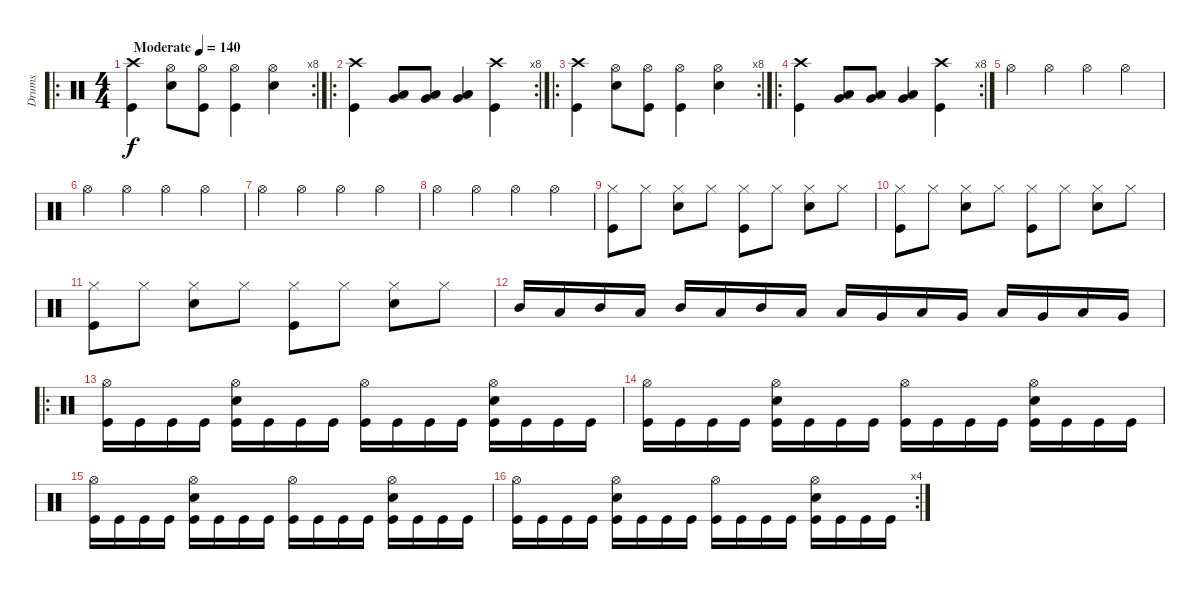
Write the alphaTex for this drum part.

\track ("Drums" "Drums") {instrument percussion}
\staff {score}
\articulation defaults
\ro
\rc 8
\ts (4 4)
\tempo (140 "Moderate")
\clef neutral
\ks c
("Kick (hit)" "Crash high (hit)").4{dy f} ("Snare (hit) 2" "Hi-Hat (open)").8 ("Kick (hit)" "Hi-Hat (open)").8 ("Kick (hit)" "Hi-Hat (open)").4 ("Snare (hit) 2" "Hi-Hat (open)").4 |
\ro
\rc 8
("Crash high (hit)" "Kick (hit)").4 ("Low Floor Tom (hit)" "Very Low Tom (hit)").8 ("Low Floor Tom (hit)" "Very Low Tom (hit)").8 ("Low Floor Tom (hit)" "Very Low Tom (hit)").4 ("Crash high (hit)" "Kick (hit)").4 |
\ro
\rc 8
("Kick (hit)" "Crash high (hit)").4 ("Snare (hit) 2" "Hi-Hat (open)").8 ("Kick (hit)" "Hi-Hat (open)").8 ("Kick (hit)" "Hi-Hat (open)").4 ("Snare (hit) 2" "Hi-Hat (open)").4 |
\ro
\rc 8
("Crash high (hit)" "Kick (hit)").4 ("Low Floor Tom (hit)" "Very Low Tom (hit)").8 ("Low Floor Tom (hit)" "Very Low Tom (hit)").8 ("Low Floor Tom (hit)" "Very Low Tom (hit)").4 ("Crash high (hit)" "Kick (hit)").4 |
"Hi-Hat (open)".4 "Hi-Hat (open)".4 "Hi-Hat (open)".4 "Hi-Hat (open)".4 |
"Hi-Hat (open)".4 "Hi-Hat (open)".4 "Hi-Hat (open)".4 "Hi-Hat (open)".4 |
"Hi-Hat (open)".4 "Hi-Hat (open)".4 "Hi-Hat (open)".4 "Hi-Hat (open)".4 |
"Hi-Hat (open)".4 "Hi-Hat (open)".4 "Hi-Hat (open)".4 "Hi-Hat (open)".4 |
("Kick (hit)" "Hi-Hat (closed)").8 "Hi-Hat (closed)".8 ("Snare (hit) 2" "Hi-Hat (closed)").8 "Hi-Hat (closed)".8 ("Kick (hit)" "Hi-Hat (closed)").8 "Hi-Hat (closed)".8 ("Snare (hit) 2" "Hi-Hat (closed)").8 "Hi-Hat (closed)".8 |
("Kick (hit)" "Hi-Hat (closed)").8 "Hi-Hat (closed)".8 ("Snare (hit) 2" "Hi-Hat (closed)").8 "Hi-Hat (closed)".8 ("Kick (hit)" "Hi-Hat (closed)").8 "Hi-Hat (closed)".8 ("Snare (hit) 2" "Hi-Hat (closed)").8 "Hi-Hat (closed)".8 |
("Kick (hit)" "Hi-Hat (closed)").8 "Hi-Hat (closed)".8 ("Snare (hit) 2" "Hi-Hat (closed)").8 "Hi-Hat (closed)".8 ("Kick (hit)" "Hi-Hat (closed)").8 "Hi-Hat (closed)".8 ("Snare (hit) 2" "Hi-Hat (closed)").8 "Hi-Hat (closed)".8 |
"Mid Tom (hit)".16 "Low Tom (hit)".16 "Mid Tom (hit)".16 "Low Tom (hit)".16 "Mid Tom (hit)".16 "Low Tom (hit)".16 "Mid Tom (hit)".16 "Low Tom (hit)".16 "Low Tom (hit)".16 "Very Low Tom (hit)".16 "Low Tom (hit)".16 "Very Low Tom (hit)".16 "Low Tom (hit)".16 "Very Low Tom (hit)".16 "Low Tom (hit)".16 "Very Low Tom (hit)".16 |
\ro
("Hi-Hat (open)" "Kick (hit)").16 "Kick (hit)".16 "Kick (hit)".16 "Kick (hit)".16 ("Snare (hit) 2" "Hi-Hat (open)" "Kick (hit)").16 "Kick (hit)".16 "Kick (hit)".16 "Kick (hit)".16 ("Hi-Hat (open)" "Kick (hit)").16 "Kick (hit)".16 "Kick (hit)".16 "Kick (hit)".16 ("Snare (hit) 2" "Hi-Hat (open)" "Kick (hit)").16 "Kick (hit)".16 "Kick (hit)".16 "Kick (hit)".16 |
("Hi-Hat (open)" "Kick (hit)").16 "Kick (hit)".16 "Kick (hit)".16 "Kick (hit)".16 ("Snare (hit) 2" "Hi-Hat (open)" "Kick (hit)").16 "Kick (hit)".16 "Kick (hit)".16 "Kick (hit)".16 ("Hi-Hat (open)" "Kick (hit)").16 "Kick (hit)".16 "Kick (hit)".16 "Kick (hit)".16 ("Snare (hit) 2" "Hi-Hat (open)" "Kick (hit)").16 "Kick (hit)".16 "Kick (hit)".16 "Kick (hit)".16 |
("Hi-Hat (open)" "Kick (hit)").16 "Kick (hit)".16 "Kick (hit)".16 "Kick (hit)".16 ("Snare (hit) 2" "Hi-Hat (open)" "Kick (hit)").16 "Kick (hit)".16 "Kick (hit)".16 "Kick (hit)".16 ("Hi-Hat (open)" "Kick (hit)").16 "Kick (hit)".16 "Kick (hit)".16 "Kick (hit)".16 ("Snare (hit) 2" "Hi-Hat (open)" "Kick (hit)").16 "Kick (hit)".16 "Kick (hit)".16 "Kick (hit)".16 |
\rc 4
("Hi-Hat (open)" "Kick (hit)").16 "Kick (hit)".16 "Kick (hit)".16 "Kick (hit)".16 ("Snare (hit) 2" "Hi-Hat (open)" "Kick (hit)").16 "Kick (hit)".16 "Kick (hit)".16 "Kick (hit)".16 ("Hi-Hat (open)" "Kick (hit)").16 "Kick (hit)".16 "Kick (hit)".16 "Kick (hit)".16 ("Snare (hit) 2" "Hi-Hat (open)" "Kick (hit)").16 "Kick (hit)".16 "Kick (hit)".16 "Kick (hit)".16
